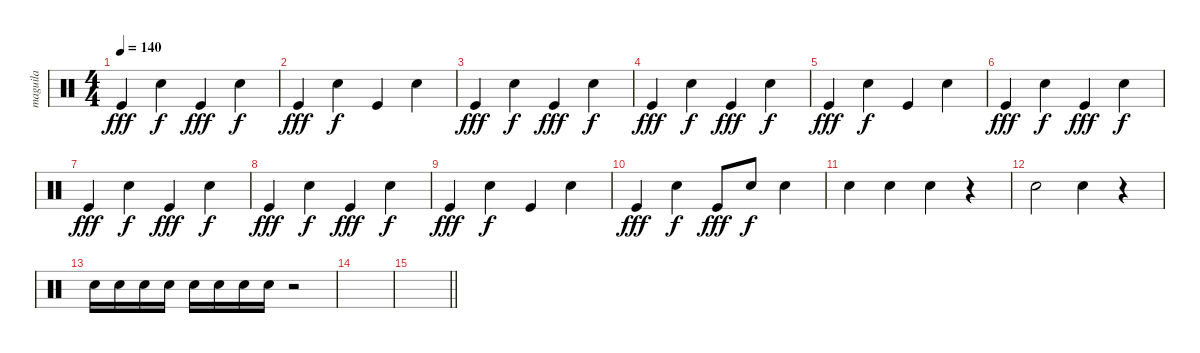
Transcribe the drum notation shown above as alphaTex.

\track ("maguila" "maguila") {instrument percussion}
\staff {score}
\articulation defaults
\ts (4 4)
\tempo 140
\clef neutral
\ks c "Kick (hit)".4{dy fff} "Snare (hit) 2".4{dy f} "Kick (hit)".4{dy fff} "Snare (hit) 2".4{dy f}
|
"Kick (hit)".4{dy fff} "Snare (hit) 2".4{dy f} "Kick (hit)".4 "Snare (hit) 2".4 |
"Kick (hit)".4{dy fff} "Snare (hit) 2".4{dy f} "Kick (hit)".4{dy fff} "Snare (hit) 2".4{dy f} |
"Kick (hit)".4{dy fff} "Snare (hit) 2".4{dy f} "Kick (hit)".4{dy fff} "Snare (hit) 2".4{dy f} |
"Kick (hit)".4{dy fff} "Snare (hit) 2".4{dy f} "Kick (hit)".4 "Snare (hit) 2".4 |
"Kick (hit)".4{dy fff} "Snare (hit) 2".4{dy f} "Kick (hit)".4{dy fff} "Snare (hit) 2".4{dy f} |
"Kick (hit)".4{dy fff} "Snare (hit) 2".4{dy f} "Kick (hit)".4{dy fff} "Snare (hit) 2".4{dy f} |
"Kick (hit)".4{dy fff} "Snare (hit) 2".4{dy f} "Kick (hit)".4{dy fff} "Snare (hit) 2".4{dy f} |
"Kick (hit)".4{dy fff} "Snare (hit) 2".4{dy f} "Kick (hit)".4 "Snare (hit) 2".4 |
"Kick (hit)".4{dy fff} "Snare (hit) 2".4{dy f} "Kick (hit)".8{dy fff} "Snare (hit) 2".8{dy f} "Snare (hit) 2".4 |
"Snare (hit) 2".4 "Snare (hit) 2".4 "Snare (hit) 2".4 r.4 |
"Snare (hit) 2".2 "Snare (hit) 2".4 r.4 |
"Snare (hit) 2".16 "Snare (hit) 2".16 "Snare (hit) 2".16 "Snare (hit) 2".16 "Snare (hit) 2".16 "Snare (hit) 2".16 "Snare (hit) 2".16 "Snare (hit) 2".16 r.2 |
|
\barLineRight lightlight
